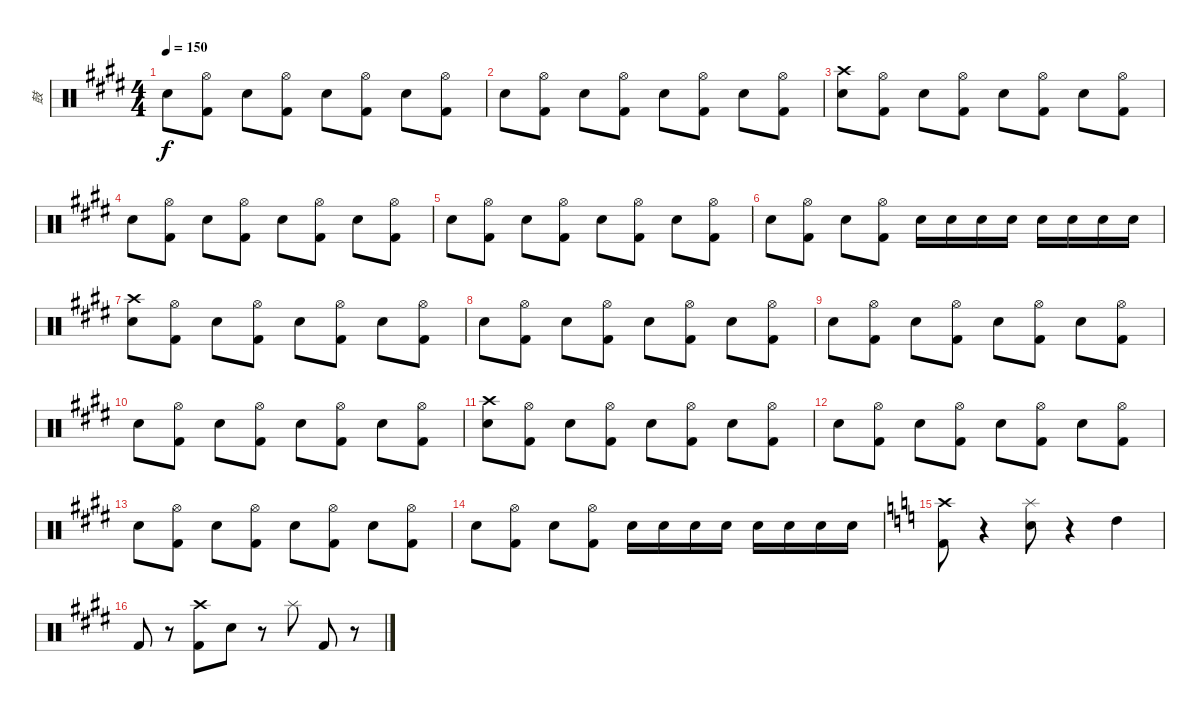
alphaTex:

\track ("鼓" "鼓") {instrument percussion}
\staff {score}
\articulation defaults
\ts (4 4)
\tempo 150
\clef neutral
\ks e "Snare (hit) 2".8{dy f}
("Hi-Hat (open)" "Kick (hit) 2").8 "Snare (hit) 2".8 ("Hi-Hat (open)" "Kick (hit) 2").8 "Snare (hit) 2".8 ("Hi-Hat (open)" "Kick (hit) 2").8 "Snare (hit) 2".8 ("Hi-Hat (open)" "Kick (hit) 2").8 |
"Snare (hit) 2".8 ("Hi-Hat (open)" "Kick (hit) 2").8 "Snare (hit) 2".8 ("Hi-Hat (open)" "Kick (hit) 2").8 "Snare (hit) 2".8 ("Hi-Hat (open)" "Kick (hit) 2").8 "Snare (hit) 2".8 ("Hi-Hat (open)" "Kick (hit) 2").8 |
("Crash high (hit)" "Snare (hit) 2").8 ("Hi-Hat (open)" "Kick (hit) 2").8 "Snare (hit) 2".8 ("Hi-Hat (open)" "Kick (hit) 2").8 "Snare (hit) 2".8 ("Hi-Hat (open)" "Kick (hit) 2").8 "Snare (hit) 2".8 ("Hi-Hat (open)" "Kick (hit) 2").8 |
"Snare (hit) 2".8 ("Hi-Hat (open)" "Kick (hit) 2").8 "Snare (hit) 2".8 ("Hi-Hat (open)" "Kick (hit) 2").8 "Snare (hit) 2".8 ("Hi-Hat (open)" "Kick (hit) 2").8 "Snare (hit) 2".8 ("Hi-Hat (open)" "Kick (hit) 2").8 |
"Snare (hit) 2".8 ("Hi-Hat (open)" "Kick (hit) 2").8 "Snare (hit) 2".8 ("Hi-Hat (open)" "Kick (hit) 2").8 "Snare (hit) 2".8 ("Hi-Hat (open)" "Kick (hit) 2").8 "Snare (hit) 2".8 ("Hi-Hat (open)" "Kick (hit) 2").8 |
"Snare (hit) 2".8 ("Hi-Hat (open)" "Kick (hit) 2").8 "Snare (hit) 2".8 ("Hi-Hat (open)" "Kick (hit) 2").8 "Snare (hit) 2".16 "Snare (hit) 2".16 "Snare (hit) 2".16 "Snare (hit) 2".16 "Snare (hit) 2".16 "Snare (hit) 2".16 "Snare (hit) 2".16 "Snare (hit) 2".16 |
("Crash high (hit)" "Snare (hit) 2").8 ("Hi-Hat (open)" "Kick (hit) 2").8 "Snare (hit) 2".8 ("Hi-Hat (open)" "Kick (hit) 2").8 "Snare (hit) 2".8 ("Hi-Hat (open)" "Kick (hit) 2").8 "Snare (hit) 2".8 ("Hi-Hat (open)" "Kick (hit) 2").8 |
"Snare (hit) 2".8 ("Hi-Hat (open)" "Kick (hit) 2").8 "Snare (hit) 2".8 ("Hi-Hat (open)" "Kick (hit) 2").8 "Snare (hit) 2".8 ("Hi-Hat (open)" "Kick (hit) 2").8 "Snare (hit) 2".8 ("Hi-Hat (open)" "Kick (hit) 2").8 |
"Snare (hit) 2".8 ("Hi-Hat (open)" "Kick (hit) 2").8 "Snare (hit) 2".8 ("Hi-Hat (open)" "Kick (hit) 2").8 "Snare (hit) 2".8 ("Hi-Hat (open)" "Kick (hit) 2").8 "Snare (hit) 2".8 ("Hi-Hat (open)" "Kick (hit) 2").8 |
"Snare (hit) 2".8 ("Hi-Hat (open)" "Kick (hit) 2").8 "Snare (hit) 2".8 ("Hi-Hat (open)" "Kick (hit) 2").8 "Snare (hit) 2".8 ("Hi-Hat (open)" "Kick (hit) 2").8 "Snare (hit) 2".8 ("Hi-Hat (open)" "Kick (hit) 2").8 |
("Crash high (hit)" "Snare (hit) 2").8 ("Hi-Hat (open)" "Kick (hit) 2").8 "Snare (hit) 2".8 ("Hi-Hat (open)" "Kick (hit) 2").8 "Snare (hit) 2".8 ("Hi-Hat (open)" "Kick (hit) 2").8 "Snare (hit) 2".8 ("Hi-Hat (open)" "Kick (hit) 2").8 |
"Snare (hit) 2".8 ("Hi-Hat (open)" "Kick (hit) 2").8 "Snare (hit) 2".8 ("Hi-Hat (open)" "Kick (hit) 2").8 "Snare (hit) 2".8 ("Hi-Hat (open)" "Kick (hit) 2").8 "Snare (hit) 2".8 ("Hi-Hat (open)" "Kick (hit) 2").8 |
"Snare (hit) 2".8 ("Hi-Hat (open)" "Kick (hit) 2").8 "Snare (hit) 2".8 ("Hi-Hat (open)" "Kick (hit) 2").8 "Snare (hit) 2".8 ("Hi-Hat (open)" "Kick (hit) 2").8 "Snare (hit) 2".8 ("Hi-Hat (open)" "Kick (hit) 2").8 |
"Snare (hit) 2".8 ("Hi-Hat (open)" "Kick (hit) 2").8 "Snare (hit) 2".8 ("Hi-Hat (open)" "Kick (hit) 2").8 "Snare (hit) 2".16 "Snare (hit) 2".16 "Snare (hit) 2".16 "Snare (hit) 2".16 "Snare (hit) 2".16 "Snare (hit) 2".16 "Snare (hit) 2".16 "Snare (hit) 2".16 |
\ks c
("Crash high (hit)" "Kick (hit) 2").8 r.4 ("Splash (hit)" "Snare (hit) 2").8 r.4 "High Tom (hit)".4 |
\ks e "Kick (hit) 2".8
r.8 ("Crash high (hit)" "Kick (hit) 2").8 "Snare (hit) 2".8 r.8 "Splash (hit)".8 "Kick (hit) 2".8 r.8
